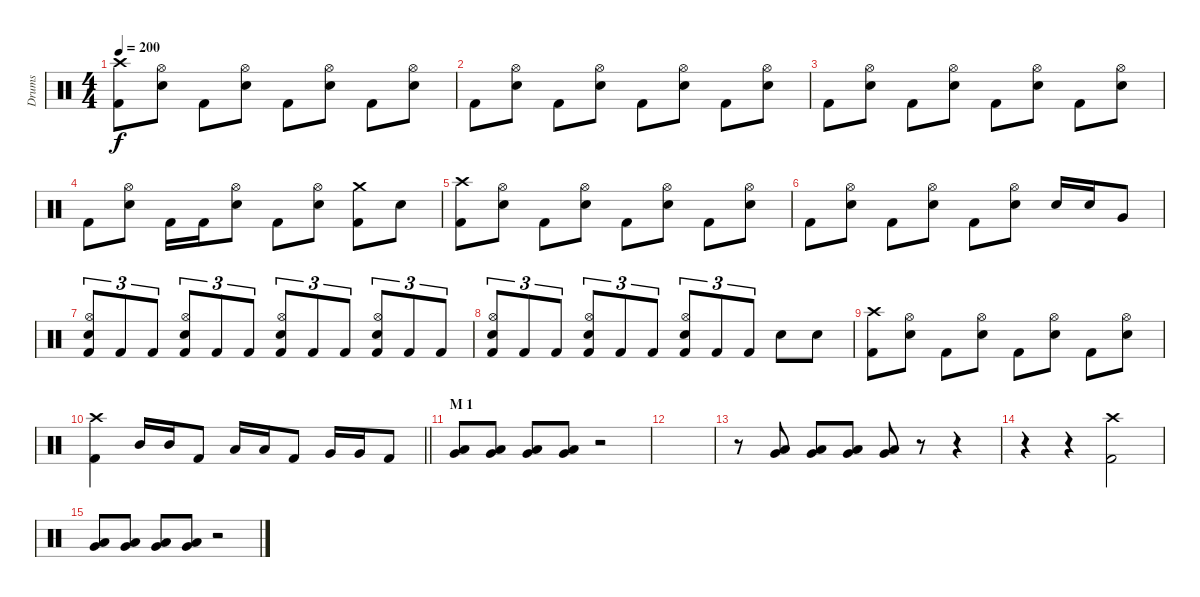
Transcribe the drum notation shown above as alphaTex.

\track ("Drums" "Drums") {instrument percussion}
\staff {score}
\articulation defaults
\ts (4 4)
\tempo 200
\clef neutral
\ks c
("Crash high (hit)" "Kick (hit) 2").8{dy f} ("Hi-Hat (open)" "Snare (hit) 2").8 "Kick (hit) 2".8 ("Hi-Hat (open)" "Snare (hit) 2").8 "Kick (hit) 2".8 ("Hi-Hat (open)" "Snare (hit) 2").8 "Kick (hit) 2".8 ("Hi-Hat (open)" "Snare (hit) 2").8 |
"Kick (hit) 2".8 ("Hi-Hat (open)" "Snare (hit) 2").8 "Kick (hit) 2".8 ("Hi-Hat (open)" "Snare (hit) 2").8 "Kick (hit) 2".8 ("Hi-Hat (open)" "Snare (hit) 2").8 "Kick (hit) 2".8 ("Hi-Hat (open)" "Snare (hit) 2").8 |
"Kick (hit) 2".8 ("Hi-Hat (open)" "Snare (hit) 2").8 "Kick (hit) 2".8 ("Hi-Hat (open)" "Snare (hit) 2").8 "Kick (hit) 2".8 ("Hi-Hat (open)" "Snare (hit) 2").8 "Kick (hit) 2".8 ("Hi-Hat (open)" "Snare (hit) 2").8 |
"Kick (hit) 2".8 ("Hi-Hat (open)" "Snare (hit) 2").8 "Kick (hit) 2".16 "Kick (hit) 2".16 ("Hi-Hat (open)" "Snare (hit) 2").8 "Kick (hit) 2".8 ("Hi-Hat (open)" "Snare (hit) 2").8 ("Crash medium (hit)" "Kick (hit) 2").8 "Snare (hit) 2".8 |
("Crash high (hit)" "Kick (hit) 2").8 ("Hi-Hat (open)" "Snare (hit) 2").8 "Kick (hit) 2".8 ("Hi-Hat (open)" "Snare (hit) 2").8 "Kick (hit) 2".8 ("Hi-Hat (open)" "Snare (hit) 2").8 "Kick (hit) 2".8 ("Hi-Hat (open)" "Snare (hit) 2").8 |
"Kick (hit) 2".8 ("Hi-Hat (open)" "Snare (hit) 2").8 "Kick (hit) 2".8 ("Hi-Hat (open)" "Snare (hit) 2").8 "Kick (hit) 2".8 ("Hi-Hat (open)" "Snare (hit) 2").8 "Snare (hit) 2".16 "Snare (hit) 2".16 "Very Low Tom (hit)".8 |
("Hi-Hat (open)" "Snare (hit) 2" "Kick (hit) 2").8{tu (3 2)} "Kick (hit) 2".8{tu (3 2)} "Kick (hit) 2".8{tu (3 2)} ("Hi-Hat (open)" "Snare (hit) 2" "Kick (hit) 2").8{tu (3 2)} "Kick (hit) 2".8{tu (3 2)} "Kick (hit) 2".8{tu (3 2)} ("Hi-Hat (open)" "Snare (hit) 2" "Kick (hit) 2").8{tu (3 2)} "Kick (hit) 2".8{tu (3 2)} "Kick (hit) 2".8{tu (3 2)} ("Hi-Hat (open)" "Snare (hit) 2" "Kick (hit) 2").8{tu (3 2)} "Kick (hit) 2".8{tu (3 2)} "Kick (hit) 2".8{tu (3 2)} |
("Hi-Hat (open)" "Snare (hit) 2" "Kick (hit) 2").8{tu (3 2)} "Kick (hit) 2".8{tu (3 2)} "Kick (hit) 2".8{tu (3 2)} ("Hi-Hat (open)" "Snare (hit) 2" "Kick (hit) 2").8{tu (3 2)} "Kick (hit) 2".8{tu (3 2)} "Kick (hit) 2".8{tu (3 2)} ("Hi-Hat (open)" "Snare (hit) 2" "Kick (hit) 2").8{tu (3 2)} "Kick (hit) 2".8{tu (3 2)} "Kick (hit) 2".8{tu (3 2)} "Snare (hit) 2".8 "Snare (hit) 2".8 |
("Crash high (hit)" "Kick (hit) 2").8 ("Hi-Hat (open)" "Snare (hit) 2").8 "Kick (hit) 2".8 ("Hi-Hat (open)" "Snare (hit) 2").8 "Kick (hit) 2".8 ("Hi-Hat (open)" "Snare (hit) 2").8 "Kick (hit) 2".8 ("Hi-Hat (open)" "Snare (hit) 2").8 |
\barLineRight lightlight
("Crash high (hit)" "Kick (hit) 2").4 "Mid Tom (hit)".16 "Mid Tom (hit)".16 "Kick (hit) 2".8 "Low Tom (hit)".16 "Low Tom (hit)".16 "Kick (hit) 2".8 "Very Low Tom (hit)".16 "Very Low Tom (hit)".16 "Kick (hit) 2".8 |
\section ("" "M 1")
("Very Low Tom (hit)" "Low Floor Tom (hit)").8 ("Very Low Tom (hit)" "Low Floor Tom (hit)").8 ("Very Low Tom (hit)" "Low Floor Tom (hit)").8 ("Very Low Tom (hit)" "Low Floor Tom (hit)").8 r.2 |
|
r.8 ("Very Low Tom (hit)" "Low Floor Tom (hit)").8 ("Very Low Tom (hit)" "Low Floor Tom (hit)").8 ("Very Low Tom (hit)" "Low Floor Tom (hit)").8 ("Very Low Tom (hit)" "Low Floor Tom (hit)").8 r.8 r.4 |
r.4 r.4 ("Crash high (hit)" "Kick (hit) 2").2 |
("Very Low Tom (hit)" "Low Floor Tom (hit)").8 ("Very Low Tom (hit)" "Low Floor Tom (hit)").8 ("Very Low Tom (hit)" "Low Floor Tom (hit)").8 ("Very Low Tom (hit)" "Low Floor Tom (hit)").8 r.2
